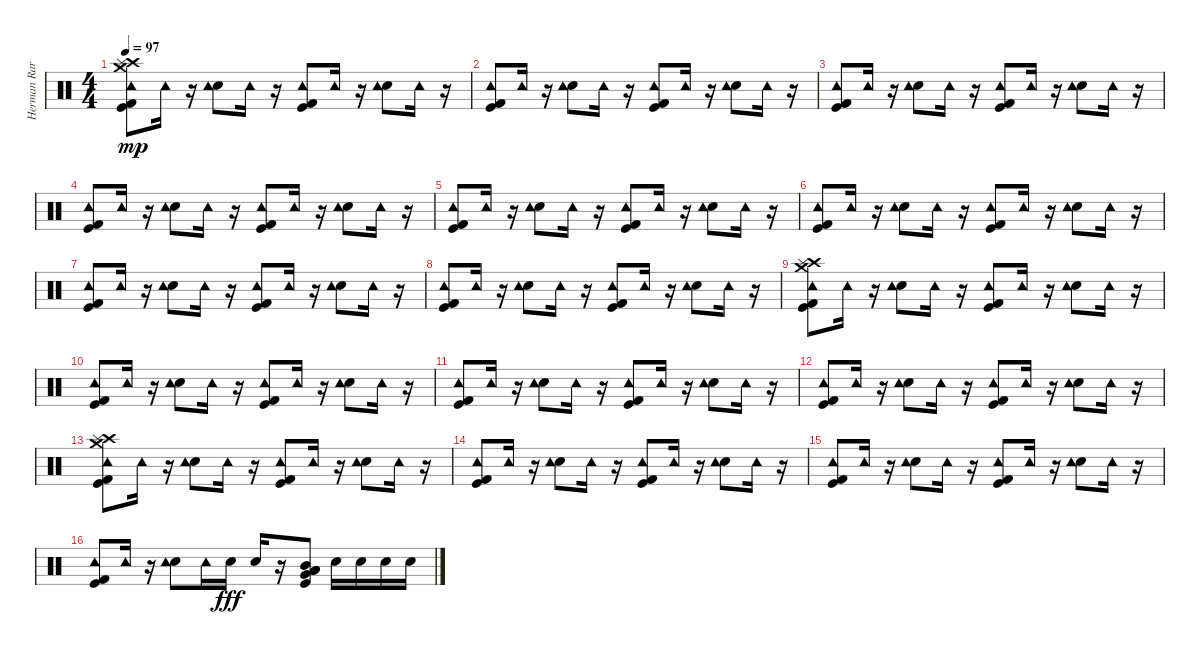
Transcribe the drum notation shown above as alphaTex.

\track ("Herman Rarebell - Drums and Percussion" "Herman Rar") {instrument percussion}
\staff {score}
\articulation defaults
\ts (4 4)
\tempo 97
\clef neutral
\ks c
("Crash high (hit)" "Splash (hit)" "Crash medium (hit)" "Kick (hit) 2" "Kick (hit)" "Tambourine (hit)").8{dy mp} "Tambourine (hit)".16 r.16 ("Snare (hit) 2" "Tambourine (hit)").8 "Tambourine (hit)".16 r.16 ("Kick (hit) 2" "Kick (hit)" "Tambourine (hit)").8 "Tambourine (hit)".16 r.16 ("Snare (hit) 2" "Tambourine (hit)").8 "Tambourine (hit)".16 r.16 |
("Kick (hit)" "Kick (hit) 2" "Tambourine (hit)").8 "Tambourine (hit)".16 r.16 ("Snare (hit) 2" "Tambourine (hit)").8 "Tambourine (hit)".16 r.16 ("Kick (hit) 2" "Kick (hit)" "Tambourine (hit)").8 "Tambourine (hit)".16 r.16 ("Snare (hit) 2" "Tambourine (hit)").8 "Tambourine (hit)".16 r.16 |
("Kick (hit)" "Kick (hit) 2" "Tambourine (hit)").8 "Tambourine (hit)".16 r.16 ("Snare (hit) 2" "Tambourine (hit)").8 "Tambourine (hit)".16 r.16 ("Kick (hit) 2" "Kick (hit)" "Tambourine (hit)").8 "Tambourine (hit)".16 r.16 ("Snare (hit) 2" "Tambourine (hit)").8 "Tambourine (hit)".16 r.16 |
("Kick (hit)" "Kick (hit) 2" "Tambourine (hit)").8 "Tambourine (hit)".16 r.16 ("Snare (hit) 2" "Tambourine (hit)").8 "Tambourine (hit)".16 r.16 ("Kick (hit) 2" "Kick (hit)" "Tambourine (hit)").8 "Tambourine (hit)".16 r.16 ("Snare (hit) 2" "Tambourine (hit)").8 "Tambourine (hit)".16 r.16 |
("Kick (hit)" "Kick (hit) 2" "Tambourine (hit)").8 "Tambourine (hit)".16 r.16 ("Snare (hit) 2" "Tambourine (hit)").8 "Tambourine (hit)".16 r.16 ("Kick (hit) 2" "Kick (hit)" "Tambourine (hit)").8 "Tambourine (hit)".16 r.16 ("Snare (hit) 2" "Tambourine (hit)").8 "Tambourine (hit)".16 r.16 |
("Kick (hit)" "Kick (hit) 2" "Tambourine (hit)").8 "Tambourine (hit)".16 r.16 ("Snare (hit) 2" "Tambourine (hit)").8 "Tambourine (hit)".16 r.16 ("Kick (hit) 2" "Kick (hit)" "Tambourine (hit)").8 "Tambourine (hit)".16 r.16 ("Snare (hit) 2" "Tambourine (hit)").8 "Tambourine (hit)".16 r.16 |
("Kick (hit)" "Kick (hit) 2" "Tambourine (hit)").8 "Tambourine (hit)".16 r.16 ("Snare (hit) 2" "Tambourine (hit)").8 "Tambourine (hit)".16 r.16 ("Kick (hit) 2" "Kick (hit)" "Tambourine (hit)").8 "Tambourine (hit)".16 r.16 ("Snare (hit) 2" "Tambourine (hit)").8 "Tambourine (hit)".16 r.16 |
("Kick (hit)" "Kick (hit) 2" "Tambourine (hit)").8 "Tambourine (hit)".16 r.16 ("Snare (hit) 2" "Tambourine (hit)").8 "Tambourine (hit)".16 r.16 ("Kick (hit) 2" "Kick (hit)" "Tambourine (hit)").8 "Tambourine (hit)".16 r.16 ("Snare (hit) 2" "Tambourine (hit)").8 "Tambourine (hit)".16 r.16 |
("Crash high (hit)" "Splash (hit)" "Crash medium (hit)" "Kick (hit) 2" "Kick (hit)" "Tambourine (hit)").8 "Tambourine (hit)".16 r.16 ("Snare (hit) 2" "Tambourine (hit)").8 "Tambourine (hit)".16 r.16 ("Kick (hit) 2" "Kick (hit)" "Tambourine (hit)").8 "Tambourine (hit)".16 r.16 ("Snare (hit) 2" "Tambourine (hit)").8 "Tambourine (hit)".16 r.16 |
("Kick (hit)" "Kick (hit) 2" "Tambourine (hit)").8 "Tambourine (hit)".16 r.16 ("Snare (hit) 2" "Tambourine (hit)").8 "Tambourine (hit)".16 r.16 ("Kick (hit) 2" "Kick (hit)" "Tambourine (hit)").8 "Tambourine (hit)".16 r.16 ("Snare (hit) 2" "Tambourine (hit)").8 "Tambourine (hit)".16 r.16 |
("Kick (hit)" "Kick (hit) 2" "Tambourine (hit)").8 "Tambourine (hit)".16 r.16 ("Snare (hit) 2" "Tambourine (hit)").8 "Tambourine (hit)".16 r.16 ("Kick (hit) 2" "Kick (hit)" "Tambourine (hit)").8 "Tambourine (hit)".16 r.16 ("Snare (hit) 2" "Tambourine (hit)").8 "Tambourine (hit)".16 r.16 |
("Kick (hit)" "Kick (hit) 2" "Tambourine (hit)").8 "Tambourine (hit)".16 r.16 ("Snare (hit) 2" "Tambourine (hit)").8 "Tambourine (hit)".16 r.16 ("Kick (hit) 2" "Kick (hit)" "Tambourine (hit)").8 "Tambourine (hit)".16 r.16 ("Snare (hit) 2" "Tambourine (hit)").8 "Tambourine (hit)".16 r.16 |
("Crash high (hit)" "Splash (hit)" "Crash medium (hit)" "Kick (hit) 2" "Kick (hit)" "Tambourine (hit)").8 "Tambourine (hit)".16 r.16 ("Snare (hit) 2" "Tambourine (hit)").8 "Tambourine (hit)".16 r.16 ("Kick (hit) 2" "Kick (hit)" "Tambourine (hit)").8 "Tambourine (hit)".16 r.16 ("Snare (hit) 2" "Tambourine (hit)").8 "Tambourine (hit)".16 r.16 |
("Kick (hit)" "Kick (hit) 2" "Tambourine (hit)").8 "Tambourine (hit)".16 r.16 ("Snare (hit) 2" "Tambourine (hit)").8 "Tambourine (hit)".16 r.16 ("Kick (hit) 2" "Kick (hit)" "Tambourine (hit)").8 "Tambourine (hit)".16 r.16 ("Snare (hit) 2" "Tambourine (hit)").8 "Tambourine (hit)".16 r.16 |
("Kick (hit)" "Kick (hit) 2" "Tambourine (hit)").8 "Tambourine (hit)".16 r.16 ("Snare (hit) 2" "Tambourine (hit)").8 "Tambourine (hit)".16 r.16 ("Kick (hit) 2" "Kick (hit)" "Tambourine (hit)").8 "Tambourine (hit)".16 r.16 ("Snare (hit) 2" "Tambourine (hit)").8 "Tambourine (hit)".16 r.16 |
("Kick (hit) 2" "Kick (hit)" "Tambourine (hit)").8 "Tambourine (hit)".16 r.16 ("Snare (hit) 2" "Tambourine (hit)").8 "Tambourine (hit)".16 "Snare (hit) 2".16{dy fff} "Snare (hit) 2".16 r.16 ("Mid Tom (hit)" "Low Tom (hit)" "Very Low Tom (hit)" "Low Floor Tom (hit)" "Kick (hit)").8 "Snare (hit) 2".16 "Snare (hit) 2".16 "Snare (hit) 2".16 "Snare (hit) 2".16
